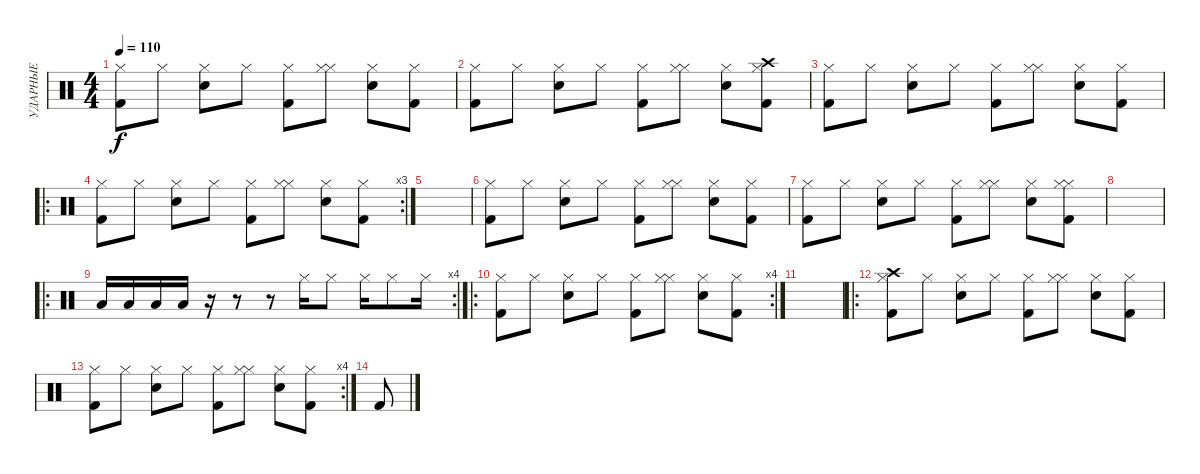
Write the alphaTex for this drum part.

\track ("УДАРНЫЕ" "УДАРНЫЕ") {instrument percussion}
\staff {score}
\articulation defaults
\ts (4 4)
\tempo 110
\clef neutral
\ks c
("Kick (hit) 2" "Hi-Hat (closed)").8{dy f} "Hi-Hat (closed)".8 ("Snare (hit) 2" "Hi-Hat (closed)").8 "Hi-Hat (closed)".8 ("Kick (hit) 2" "Hi-Hat (closed)").8 ("Hi-Hat (closed)" "Hi-Hat (closed)").8 ("Snare (hit) 2" "Hi-Hat (closed)").8 ("Kick (hit) 2" "Hi-Hat (closed)").8 |
("Kick (hit) 2" "Hi-Hat (closed)").8 "Hi-Hat (closed)".8 ("Snare (hit) 2" "Hi-Hat (closed)").8 "Hi-Hat (closed)".8 ("Kick (hit) 2" "Hi-Hat (closed)").8 ("Hi-Hat (closed)" "Hi-Hat (closed)").8 ("Snare (hit) 2" "Hi-Hat (closed)").8 ("Kick (hit) 2" "Hi-Hat (closed)" "Crash high (hit)").8 |
("Kick (hit) 2" "Hi-Hat (closed)").8 "Hi-Hat (closed)".8 ("Snare (hit) 2" "Hi-Hat (closed)").8 "Hi-Hat (closed)".8 ("Kick (hit) 2" "Hi-Hat (closed)").8 ("Hi-Hat (closed)" "Hi-Hat (closed)").8 ("Snare (hit) 2" "Hi-Hat (closed)").8 ("Kick (hit) 2" "Hi-Hat (closed)").8 |
\ro
\rc 3
("Kick (hit) 2" "Hi-Hat (closed)").8 "Hi-Hat (closed)".8 ("Snare (hit) 2" "Hi-Hat (closed)").8 "Hi-Hat (closed)".8 ("Kick (hit) 2" "Hi-Hat (closed)").8 ("Hi-Hat (closed)" "Hi-Hat (closed)").8 ("Snare (hit) 2" "Hi-Hat (closed)").8 ("Kick (hit) 2" "Hi-Hat (closed)").8 |
|
("Kick (hit) 2" "Hi-Hat (closed)").8 "Hi-Hat (closed)".8 ("Snare (hit) 2" "Hi-Hat (closed)").8 "Hi-Hat (closed)".8 ("Kick (hit) 2" "Hi-Hat (closed)").8 ("Hi-Hat (closed)" "Hi-Hat (closed)").8 ("Snare (hit) 2" "Hi-Hat (closed)").8 ("Kick (hit) 2" "Hi-Hat (closed)").8 |
("Kick (hit) 2" "Hi-Hat (closed)").8 "Hi-Hat (closed)".8 ("Snare (hit) 2" "Hi-Hat (closed)").8 "Hi-Hat (closed)".8 ("Kick (hit) 2" "Hi-Hat (closed)").8 ("Hi-Hat (closed)" "Hi-Hat (closed)").8 ("Snare (hit) 2" "Hi-Hat (closed)").8 ("Kick (hit) 2" "Hi-Hat (closed)" "Hi-Hat (closed)").8 |
|
\ro
\rc 4 "Low Floor Tom (hit)".16 "Low Floor Tom (hit)".16 "Low Floor Tom (hit)".16 "Low Floor Tom (hit)".16
r.16 r.8 r.8 "Hi-Hat (closed)".16 "Hi-Hat (closed)".8 "Hi-Hat (closed)".16 "Hi-Hat (closed)".8 "Hi-Hat (closed)".16 |
\ro
\rc 4
("Kick (hit) 2" "Hi-Hat (closed)").8 "Hi-Hat (closed)".8 ("Snare (hit) 2" "Hi-Hat (closed)").8 "Hi-Hat (closed)".8 ("Kick (hit) 2" "Hi-Hat (closed)").8 ("Hi-Hat (closed)" "Hi-Hat (closed)").8 ("Snare (hit) 2" "Hi-Hat (closed)").8 ("Kick (hit) 2" "Hi-Hat (closed)").8 |
|
\ro
("Kick (hit) 2" "Hi-Hat (closed)" "Crash high (hit)").8 "Hi-Hat (closed)".8 ("Snare (hit) 2" "Hi-Hat (closed)").8 "Hi-Hat (closed)".8 ("Kick (hit) 2" "Hi-Hat (closed)").8 ("Hi-Hat (closed)" "Hi-Hat (closed)").8 ("Snare (hit) 2" "Hi-Hat (closed)").8 ("Kick (hit) 2" "Hi-Hat (closed)").8 |
\rc 4
("Kick (hit) 2" "Hi-Hat (closed)").8 "Hi-Hat (closed)".8 ("Snare (hit) 2" "Hi-Hat (closed)").8 "Hi-Hat (closed)".8 ("Kick (hit) 2" "Hi-Hat (closed)").8 ("Hi-Hat (closed)" "Hi-Hat (closed)").8 ("Snare (hit) 2" "Hi-Hat (closed)").8 ("Kick (hit) 2" "Hi-Hat (closed)").8 |
"Kick (hit) 2".8
